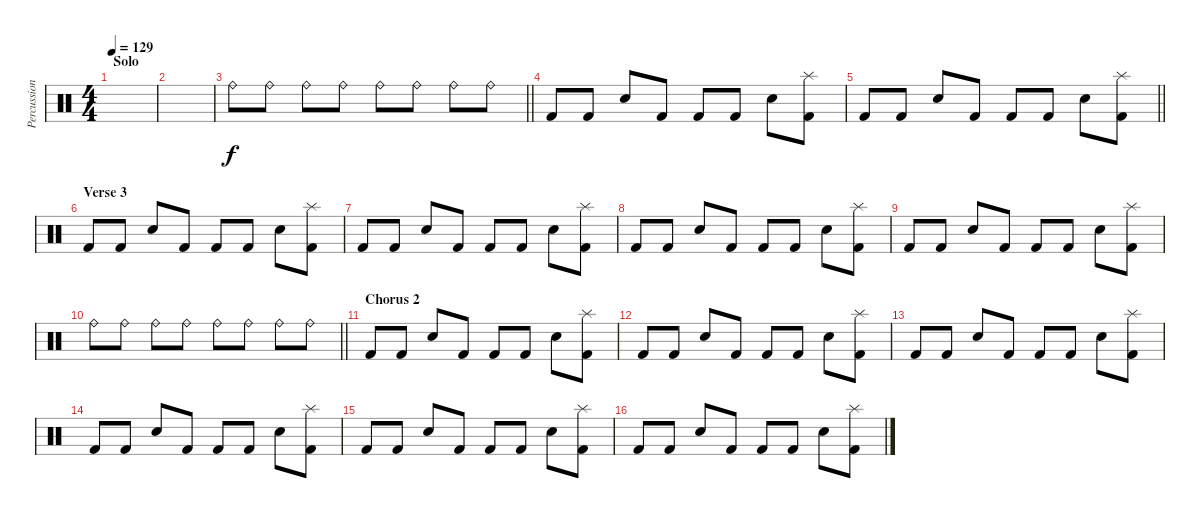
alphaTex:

\track ("Percussion" "Percussion") {instrument percussion}
\staff {score}
\articulation defaults
\ts (4 4)
\section ("" "Solo")
\tempo 129
\clef neutral
\ks c
|
|
\barLineRight lightlight "Ride (bell)".8 "Ride (bell)".8 "Ride (bell)".8 "Ride (bell)".8 "Ride (bell)".8 "Ride (bell)".8 "Ride (bell)".8 "Ride (bell)".8
|
"Kick (hit) 2".8 "Kick (hit) 2".8 "Hand Clap (hit)".8 "Kick (hit) 2".8 "Kick (hit) 2".8 "Kick (hit) 2".8 "Hand Clap (hit)".8 ("Splash (hit)" "Kick (hit) 2").8 |
\barLineRight lightlight "Kick (hit) 2".8 "Kick (hit) 2".8 "Hand Clap (hit)".8 "Kick (hit) 2".8 "Kick (hit) 2".8 "Kick (hit) 2".8 "Hand Clap (hit)".8
("Splash (hit)" "Kick (hit) 2").8 |
\section ("" "Verse 3")
"Kick (hit) 2".8 "Kick (hit) 2".8 "Hand Clap (hit)".8 "Kick (hit) 2".8 "Kick (hit) 2".8 "Kick (hit) 2".8 "Hand Clap (hit)".8 ("Splash (hit)" "Kick (hit) 2").8 |
"Kick (hit) 2".8 "Kick (hit) 2".8 "Hand Clap (hit)".8 "Kick (hit) 2".8 "Kick (hit) 2".8 "Kick (hit) 2".8 "Hand Clap (hit)".8 ("Splash (hit)" "Kick (hit) 2").8 |
"Kick (hit) 2".8 "Kick (hit) 2".8 "Hand Clap (hit)".8 "Kick (hit) 2".8 "Kick (hit) 2".8 "Kick (hit) 2".8 "Hand Clap (hit)".8 ("Splash (hit)" "Kick (hit) 2").8 |
"Kick (hit) 2".8 "Kick (hit) 2".8 "Hand Clap (hit)".8 "Kick (hit) 2".8 "Kick (hit) 2".8 "Kick (hit) 2".8 "Hand Clap (hit)".8 ("Splash (hit)" "Kick (hit) 2").8 |
\barLineRight lightlight "Ride (bell)".8 "Ride (bell)".8 "Ride (bell)".8 "Ride (bell)".8 "Ride (bell)".8 "Ride (bell)".8 "Ride (bell)".8 "Ride (bell)".8
|
\section ("" "Chorus 2")
"Kick (hit) 2".8 "Kick (hit) 2".8 "Hand Clap (hit)".8 "Kick (hit) 2".8 "Kick (hit) 2".8 "Kick (hit) 2".8 "Hand Clap (hit)".8 ("Splash (hit)" "Kick (hit) 2").8 |
"Kick (hit) 2".8 "Kick (hit) 2".8 "Hand Clap (hit)".8 "Kick (hit) 2".8 "Kick (hit) 2".8 "Kick (hit) 2".8 "Hand Clap (hit)".8 ("Splash (hit)" "Kick (hit) 2").8 |
"Kick (hit) 2".8 "Kick (hit) 2".8 "Hand Clap (hit)".8 "Kick (hit) 2".8 "Kick (hit) 2".8 "Kick (hit) 2".8 "Hand Clap (hit)".8 ("Splash (hit)" "Kick (hit) 2").8 |
"Kick (hit) 2".8 "Kick (hit) 2".8 "Hand Clap (hit)".8 "Kick (hit) 2".8 "Kick (hit) 2".8 "Kick (hit) 2".8 "Hand Clap (hit)".8 ("Splash (hit)" "Kick (hit) 2").8 |
"Kick (hit) 2".8 "Kick (hit) 2".8 "Hand Clap (hit)".8 "Kick (hit) 2".8 "Kick (hit) 2".8 "Kick (hit) 2".8 "Hand Clap (hit)".8 ("Splash (hit)" "Kick (hit) 2").8 |
"Kick (hit) 2".8 "Kick (hit) 2".8 "Hand Clap (hit)".8 "Kick (hit) 2".8 "Kick (hit) 2".8 "Kick (hit) 2".8 "Hand Clap (hit)".8 ("Splash (hit)" "Kick (hit) 2").8
